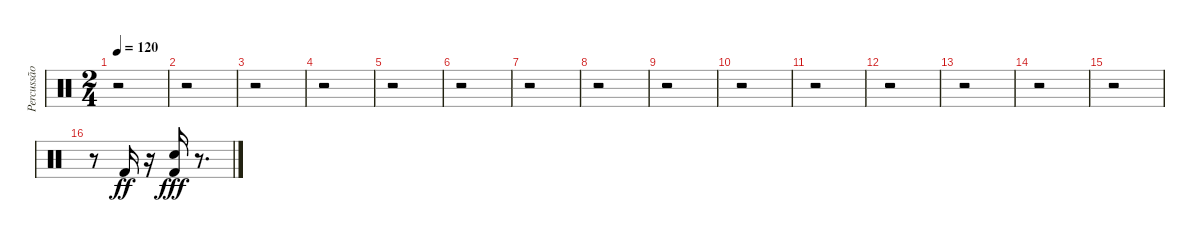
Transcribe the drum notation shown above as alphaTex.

\track ("Percussão" "Percussão") {instrument percussion}
\staff {score}
\articulation defaults
\ts (2 4)
\tempo 120
\clef neutral
\ks c
r.2{dy ff} |
r.2 |
r.2 |
r.2 |
r.2 |
r.2 |
r.2 |
r.2 |
r.2 |
r.2 |
r.2 |
r.2 |
r.2 |
r.2 |
r.2 |
r.8 "Kick (hit) 2".16 r.16 ("Kick (hit) 2" "Snare (hit) 2").16{dy fff} r.8{d}
